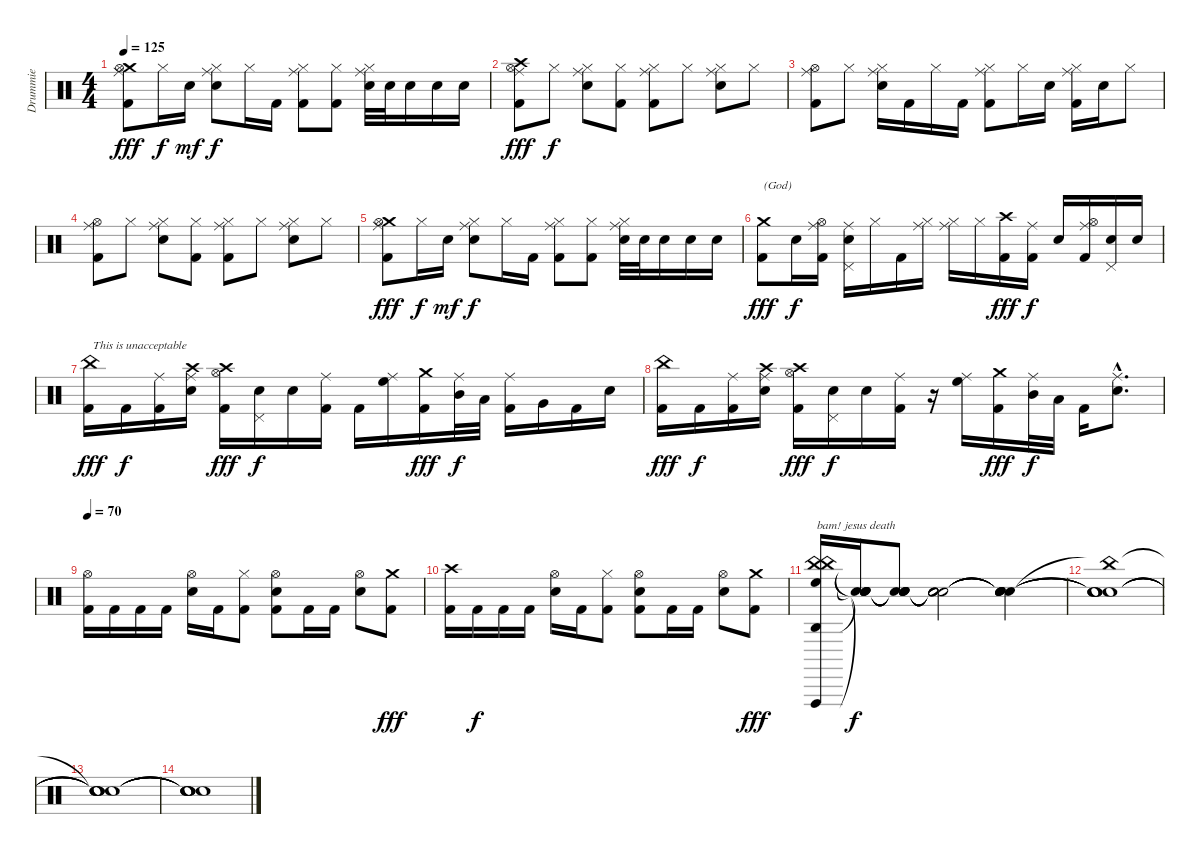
\track ("Drummie" "Drummie") {instrument percussion}
\staff {score}
\articulation defaults
\ts (4 4)
\tempo 125
\clef neutral
\ks c
("Ride (middle)" "Crash medium (hit)" "Hi-Hat (open)" "Kick (hit) 2").8{dy fff} "Hi-Hat (closed)".16{dy f} "Electric Snare (hit)".16{dy mf} ("Ride (middle)" "Hi-Hat (closed)" "Electric Snare (hit)").8{dy f} "Hi-Hat (closed)".16 "Kick (hit) 2".16 ("Ride (middle)" "Hi-Hat (closed)" "Kick (hit) 2").8 ("Hi-Hat (closed)" "Kick (hit) 2").8 ("Ride (middle)" "Hi-Hat (closed)" "Electric Snare (hit)").32 "Electric Snare (hit)".32 "Electric Snare (hit)".16 "Electric Snare (hit)".16 "Electric Snare (hit)".16 |
("Ride (middle)" "Crash high (hit)" "Hi-Hat (open)" "Kick (hit) 2").8{dy fff} "Hi-Hat (closed)".8{dy f} ("Ride (middle)" "Hi-Hat (closed)" "Electric Snare (hit)").8 ("Hi-Hat (closed)" "Kick (hit) 2").8 ("Ride (middle)" "Hi-Hat (closed)" "Kick (hit) 2").8 "Hi-Hat (closed)".8 ("Ride (middle)" "Hi-Hat (closed)" "Electric Snare (hit)").8 "Hi-Hat (closed)".8 |
("Ride (middle)" "Hi-Hat (open)" "Kick (hit) 2").8 "Hi-Hat (closed)".8 ("Ride (middle)" "Hi-Hat (closed)" "Electric Snare (hit)").16 "Kick (hit) 2".16 "Hi-Hat (closed)".16 "Kick (hit) 2".16 ("Ride (middle)" "Hi-Hat (closed)" "Kick (hit) 2").8 "Hi-Hat (closed)".16 "Electric Snare (hit)".16 ("Ride (middle)" "Hi-Hat (closed)" "Kick (hit) 2").16 "Electric Snare (hit)".16 "Hi-Hat (closed)".8 |
("Ride (middle)" "Hi-Hat (open)" "Kick (hit) 2").8 "Hi-Hat (closed)".8 ("Ride (middle)" "Hi-Hat (closed)" "Electric Snare (hit)").8 ("Hi-Hat (closed)" "Kick (hit) 2").8 ("Ride (middle)" "Hi-Hat (closed)" "Kick (hit) 2").8 "Hi-Hat (closed)".8 ("Ride (middle)" "Hi-Hat (closed)" "Electric Snare (hit)").8 "Hi-Hat (closed)".8 |
("Ride (middle)" "Crash medium (hit)" "Hi-Hat (open)" "Kick (hit) 2").8{dy fff} "Hi-Hat (closed)".16{dy f} "Electric Snare (hit)".16{dy mf} ("Ride (middle)" "Hi-Hat (closed)" "Electric Snare (hit)").8{dy f} "Hi-Hat (closed)".16 "Kick (hit) 2".16 ("Ride (middle)" "Hi-Hat (closed)" "Kick (hit) 2").8 ("Hi-Hat (closed)" "Kick (hit) 2").8 ("Ride (middle)" "Hi-Hat (closed)" "Electric Snare (hit)").32 "Electric Snare (hit)".32 "Electric Snare (hit)".16 "Electric Snare (hit)".16 "Electric Snare (hit)".16 |
("Crash medium (hit)" "Kick (hit) 2").8{txt "(God)" dy fff} "Electric Snare (hit)".16{dy f} ("Ride (middle)" "Hi-Hat (open)" "Kick (hit) 2").16 ("Ride (middle)" "Pedal Hi-Hat (hit)" "Electric Snare (hit)").16 "Hi-Hat (closed)".16 "Kick (hit) 2".16 ("Ride (middle)" "Hi-Hat (closed)").16 ("Ride (middle)" "Hi-Hat (closed)").16 "Hi-Hat (closed)".16 ("Crash high (hit)" "Kick (hit) 2").16{dy fff} ("Ride (middle)" "Kick (hit) 2").16{dy f} "Electric Snare (hit)".16 ("Ride (middle)" "Hi-Hat (open)" "Kick (hit) 2").16 ("Pedal Hi-Hat (hit)" "Electric Snare (hit)").16 "Electric Snare (hit)".16 |
("China (hit)" "Kick (hit) 2").16{txt "This is unacceptable" dy fff} "Kick (hit) 2".16{dy f} ("Ride (middle)" "Kick (hit) 2").16 ("Ride (middle)" "Crash high (hit)" "Electric Snare (hit)").16 ("Crash high (hit)" "Hi-Hat (open)" "Kick (hit) 2").16{dy fff} ("Pedal Hi-Hat (hit)" "Electric Snare (hit)").16{dy f} "Electric Snare (hit)".16 ("Ride (middle)" "Kick (hit) 2").16 "Kick (hit) 2".16 ("Ride (middle)" "High Floor Tom (hit)").16 ("Crash medium (hit)" "Kick (hit) 2").16{dy fff} ("Ride (middle)" "Mid Tom (hit)").32{dy f} "Low Tom (hit)".32 ("Ride (middle)" "Kick (hit) 2").16 "Very Low Tom (hit)".16 "Kick (hit) 2".16 "Electric Snare (hit)".16 |
("China (hit)" "Kick (hit) 2").16{dy fff} "Kick (hit) 2".16{dy f} ("Ride (middle)" "Kick (hit) 2").16 ("Ride (middle)" "Crash high (hit)" "Electric Snare (hit)").16 ("Crash high (hit)" "Hi-Hat (open)" "Kick (hit) 2").16{dy fff} ("Pedal Hi-Hat (hit)" "Electric Snare (hit)").16{dy f} "Electric Snare (hit)".16 ("Ride (middle)" "Kick (hit) 2").16 r.16 ("Ride (middle)" "High Floor Tom (hit)").16 ("Crash medium (hit)" "Kick (hit) 2").16{dy fff} ("Ride (middle)" "Mid Tom (hit)").32{dy f} "Low Tom (hit)".32 "Kick (hit) 2".16 ("Ride (middle)"{hac} "Electric Snare (hit)"{hac}).8{d} |
\tempo 70
("Hi-Hat (open)" "Kick (hit) 2").16 "Kick (hit) 2".16 "Kick (hit) 2".16 "Kick (hit) 2".16 ("Hi-Hat (open)" "Electric Snare (hit)").16 "Kick (hit) 2".16 ("Hi-Hat (closed)" "Kick (hit) 2").8 ("Hi-Hat (open)" "Electric Snare (hit)" "Kick (hit) 2").8 "Kick (hit) 2".16 "Kick (hit) 2".16 ("Hi-Hat (open)" "Electric Snare (hit)").8 ("Crash medium (hit)" "Kick (hit) 2").8{dy fff} |
("Crash high (hit)" "Kick (hit) 2").16 "Kick (hit) 2".16{dy f} "Kick (hit) 2".16 "Kick (hit) 2".16 ("Hi-Hat (open)" "Electric Snare (hit)").16 "Kick (hit) 2".16 ("Hi-Hat (closed)" "Kick (hit) 2").8 ("Hi-Hat (open)" "Electric Snare (hit)" "Kick (hit) 2").8 "Kick (hit) 2".16 "Kick (hit) 2".16 ("Hi-Hat (open)" "Electric Snare (hit)").8 ("Crash medium (hit)" "Kick (hit) 2").8{dy fff} |
("China (hit)" "China (hit)" "High Floor Tom (hit)" "Agogo high (hit)" "Vibraslap (hit)").16{txt "bam! jesus death"} ("Snare (hit)"{t} "Snare (hit)"{t} "Snare (hit)"{t} "Snare (hit)"{t} "Snare (hit)"{t}).16{dy f} ("Snare (hit)"{t} "Snare (hit)"{t} "Snare (hit)"{t} "Snare (hit)"{t} "Snare (hit)"{t}).8 ("Snare (hit)"{t} "Snare (hit)"{t} "Snare (hit)"{t} "Snare (hit)"{t} "Snare (hit)"{t}).2 ("Snare (hit)"{t} "Snare (hit)"{t} "Snare (hit)"{t} "Snare (hit)"{t} "Snare (hit)"{t}).4{volume 0} |
("Snare (hit)"{t} "Snare (hit)"{t} "China (hit)"{t} "Snare (hit)"{t} "Snare (hit)"{t}).1 |
("Snare (hit)"{t} "Snare (hit)"{t} "Snare (hit)"{t} "Snare (hit)"{t} "Snare (hit)"{t}).1 |
("Snare (hit)"{t} "Snare (hit)"{t} "Snare (hit)"{t} "Snare (hit)"{t} "Snare (hit)"{t}).1
